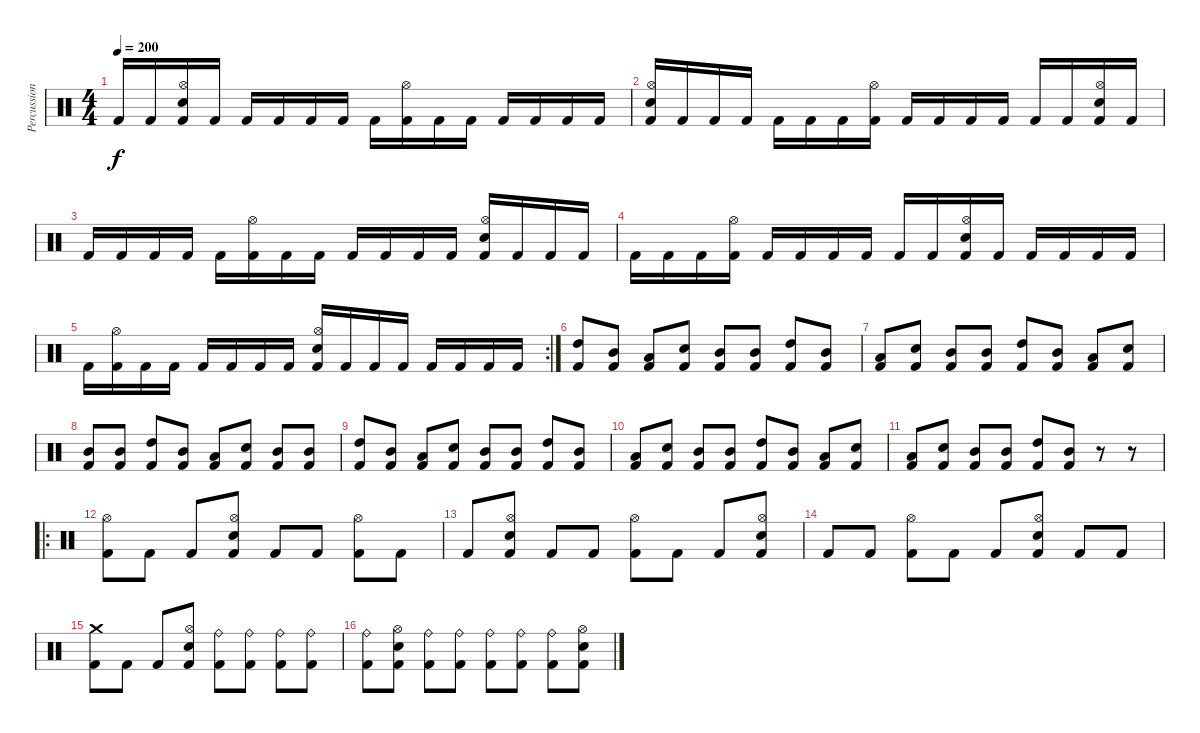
\track ("Percussion" "Percussion") {instrument percussion}
\staff {score}
\articulation defaults
\ts (4 4)
\tempo 200
\clef neutral
\ks c "Kick (hit) 2".16{dy f} "Kick (hit) 2".16
("Hi-Hat (open)" "Electric Snare (hit)" "Kick (hit) 2").16 "Kick (hit) 2".16 "Kick (hit) 2".16 "Kick (hit) 2".16 "Kick (hit) 2".16 "Kick (hit) 2".16 "Kick (hit) 2".16 ("Hi-Hat (open)" "Kick (hit) 2").16 "Kick (hit) 2".16 "Kick (hit) 2".16 "Kick (hit) 2".16 "Kick (hit) 2".16 "Kick (hit) 2".16 "Kick (hit) 2".16 |
("Hi-Hat (open)" "Electric Snare (hit)" "Kick (hit) 2").16 "Kick (hit) 2".16 "Kick (hit) 2".16 "Kick (hit) 2".16 "Kick (hit) 2".16 "Kick (hit) 2".16 "Kick (hit) 2".16 ("Hi-Hat (open)" "Kick (hit) 2").16 "Kick (hit) 2".16 "Kick (hit) 2".16 "Kick (hit) 2".16 "Kick (hit) 2".16 "Kick (hit) 2".16 "Kick (hit) 2".16 ("Hi-Hat (open)" "Electric Snare (hit)" "Kick (hit) 2").16 "Kick (hit) 2".16 |
"Kick (hit) 2".16 "Kick (hit) 2".16 "Kick (hit) 2".16 "Kick (hit) 2".16 "Kick (hit) 2".16 ("Hi-Hat (open)" "Kick (hit) 2").16 "Kick (hit) 2".16 "Kick (hit) 2".16 "Kick (hit) 2".16 "Kick (hit) 2".16 "Kick (hit) 2".16 "Kick (hit) 2".16 ("Hi-Hat (open)" "Electric Snare (hit)" "Kick (hit) 2").16 "Kick (hit) 2".16 "Kick (hit) 2".16 "Kick (hit) 2".16 |
"Kick (hit) 2".16 "Kick (hit) 2".16 "Kick (hit) 2".16 ("Hi-Hat (open)" "Kick (hit) 2").16 "Kick (hit) 2".16 "Kick (hit) 2".16 "Kick (hit) 2".16 "Kick (hit) 2".16 "Kick (hit) 2".16 "Kick (hit) 2".16 ("Hi-Hat (open)" "Electric Snare (hit)" "Kick (hit) 2").16 "Kick (hit) 2".16 "Kick (hit) 2".16 "Kick (hit) 2".16 "Kick (hit) 2".16 "Kick (hit) 2".16 |
\rc 2 "Kick (hit) 2".16
("Hi-Hat (open)" "Kick (hit) 2").16 "Kick (hit) 2".16 "Kick (hit) 2".16 "Kick (hit) 2".16 "Kick (hit) 2".16 "Kick (hit) 2".16 "Kick (hit) 2".16 ("Hi-Hat (open)" "Electric Snare (hit)" "Kick (hit) 2").16 "Kick (hit) 2".16 "Kick (hit) 2".16 "Kick (hit) 2".16 "Kick (hit) 2".16 "Kick (hit) 2".16 "Kick (hit) 2".16 "Kick (hit) 2".16 |
("High Tom (hit)" "Kick (hit) 2").8 ("Mid Tom (hit)" "Kick (hit) 2").8 ("Low Tom (hit)" "Kick (hit) 2").8 ("Electric Snare (hit)" "Kick (hit) 2").8 ("Mid Tom (hit)" "Kick (hit) 2").8 ("Mid Tom (hit)" "Kick (hit) 2").8 ("High Tom (hit)" "Kick (hit) 2").8 ("Mid Tom (hit)" "Kick (hit) 2").8 |
("Low Tom (hit)" "Kick (hit) 2").8 ("Electric Snare (hit)" "Kick (hit) 2").8 ("Mid Tom (hit)" "Kick (hit) 2").8 ("Mid Tom (hit)" "Kick (hit) 2").8 ("High Tom (hit)" "Kick (hit) 2").8 ("Mid Tom (hit)" "Kick (hit) 2").8 ("Low Tom (hit)" "Kick (hit) 2").8 ("Electric Snare (hit)" "Kick (hit) 2").8 |
("Mid Tom (hit)" "Kick (hit) 2").8 ("Mid Tom (hit)" "Kick (hit) 2").8 ("High Tom (hit)" "Kick (hit) 2").8 ("Mid Tom (hit)" "Kick (hit) 2").8 ("Low Tom (hit)" "Kick (hit) 2").8 ("Electric Snare (hit)" "Kick (hit) 2").8 ("Mid Tom (hit)" "Kick (hit) 2").8 ("Mid Tom (hit)" "Kick (hit) 2").8 |
("High Tom (hit)" "Kick (hit) 2").8 ("Mid Tom (hit)" "Kick (hit) 2").8 ("Low Tom (hit)" "Kick (hit) 2").8 ("Electric Snare (hit)" "Kick (hit) 2").8 ("Mid Tom (hit)" "Kick (hit) 2").8 ("Mid Tom (hit)" "Kick (hit) 2").8 ("High Tom (hit)" "Kick (hit) 2").8 ("Mid Tom (hit)" "Kick (hit) 2").8 |
("Low Tom (hit)" "Kick (hit) 2").8 ("Electric Snare (hit)" "Kick (hit) 2").8 ("Mid Tom (hit)" "Kick (hit) 2").8 ("Mid Tom (hit)" "Kick (hit) 2").8 ("High Tom (hit)" "Kick (hit) 2").8 ("Mid Tom (hit)" "Kick (hit) 2").8 ("Low Tom (hit)" "Kick (hit) 2").8 ("Electric Snare (hit)" "Kick (hit) 2").8 |
("Low Tom (hit)" "Kick (hit) 2").8 ("Electric Snare (hit)" "Kick (hit) 2").8 ("Mid Tom (hit)" "Kick (hit) 2").8 ("Mid Tom (hit)" "Kick (hit) 2").8 ("High Tom (hit)" "Kick (hit) 2").8 ("Mid Tom (hit)" "Kick (hit) 2").8 r.8 r.8 |
\ro
("Hi-Hat (open)" "Kick (hit) 2").8 "Kick (hit) 2".8 "Kick (hit) 2".8 ("Hi-Hat (open)" "Electric Snare (hit)" "Kick (hit) 2").8 "Kick (hit) 2".8 "Kick (hit) 2".8 ("Hi-Hat (open)" "Kick (hit) 2").8 "Kick (hit) 2".8 |
"Kick (hit) 2".8 ("Hi-Hat (open)" "Electric Snare (hit)" "Kick (hit) 2").8 "Kick (hit) 2".8 "Kick (hit) 2".8 ("Hi-Hat (open)" "Kick (hit) 2").8 "Kick (hit) 2".8 "Kick (hit) 2".8 ("Hi-Hat (open)" "Electric Snare (hit)" "Kick (hit) 2").8 |
"Kick (hit) 2".8 "Kick (hit) 2".8 ("Hi-Hat (open)" "Kick (hit) 2").8 "Kick (hit) 2".8 "Kick (hit) 2".8 ("Hi-Hat (open)" "Electric Snare (hit)" "Kick (hit) 2").8 "Kick (hit) 2".8 "Kick (hit) 2".8 |
("Crash medium (hit)" "Kick (hit) 2").8 "Kick (hit) 2".8 "Kick (hit) 2".8 ("Hi-Hat (open)" "Electric Snare (hit)" "Kick (hit) 2").8 ("Ride (bell)" "Kick (hit) 2").8 ("Ride (bell)" "Kick (hit) 2").8 ("Ride (bell)" "Kick (hit) 2").8 ("Ride (bell)" "Kick (hit) 2").8 |
("Ride (bell)" "Kick (hit) 2").8 ("Hi-Hat (open)" "Electric Snare (hit)" "Kick (hit) 2").8 ("Ride (bell)" "Kick (hit) 2").8 ("Ride (bell)" "Kick (hit) 2").8 ("Ride (bell)" "Kick (hit) 2").8 ("Ride (bell)" "Kick (hit) 2").8 ("Ride (bell)" "Kick (hit) 2").8 ("Hi-Hat (open)" "Electric Snare (hit)" "Kick (hit) 2").8
